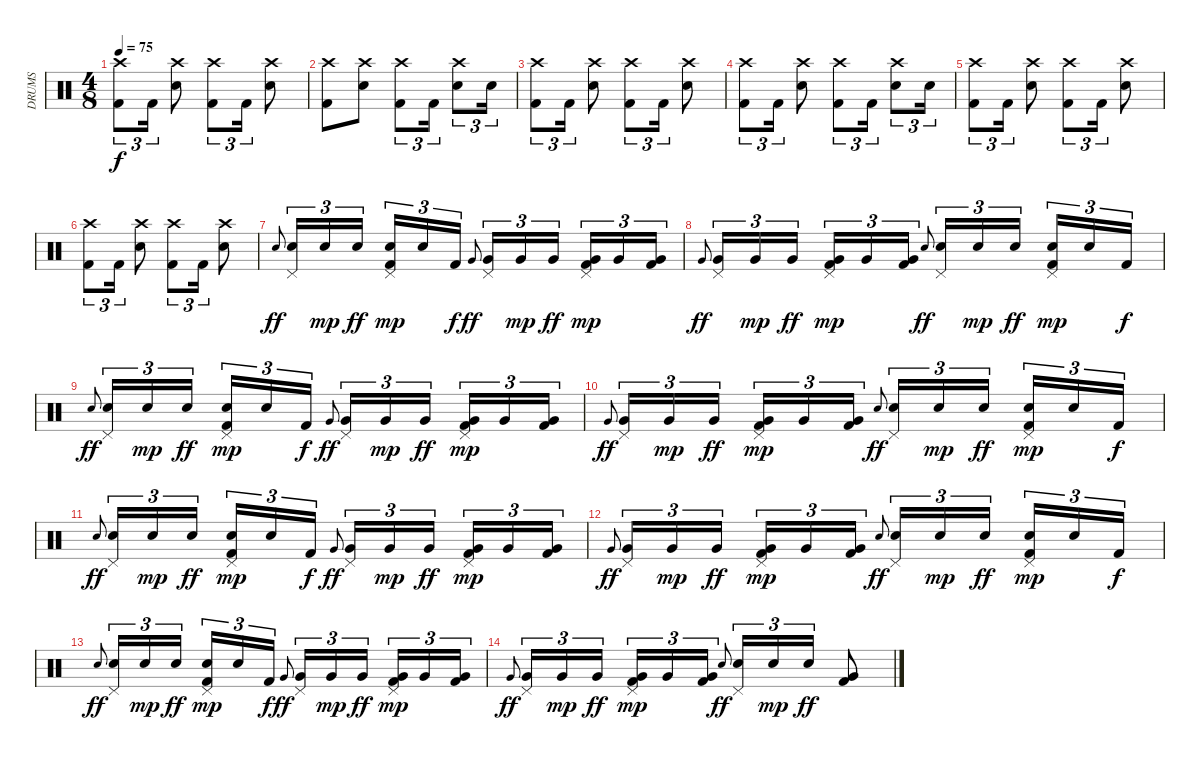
\track ("DRUMS" "DRUMS") {instrument percussion}
\staff {score}
\articulation defaults
\ts (4 8)
\tempo 75
\clef neutral
\ks c
("Crash high (hit)" "Kick (hit) 2").8{tu (3 2) dy f} "Kick (hit) 2".16{tu (3 2)} ("Crash high (hit)" "Snare (hit) 2").8 ("Crash high (hit)" "Kick (hit) 2").8{tu (3 2)} "Kick (hit) 2".16{tu (3 2)} ("Crash high (hit)" "Snare (hit) 2").8 |
("Crash high (hit)" "Kick (hit) 2").8 ("Crash high (hit)" "Snare (hit) 2").8 ("Crash high (hit)" "Kick (hit) 2").8{tu (3 2)} "Kick (hit) 2".16{tu (3 2)} ("Crash high (hit)" "Snare (hit) 2").8{tu (3 2)} "Snare (hit) 2".16{tu (3 2)} |
("Crash high (hit)" "Kick (hit) 2").8{tu (3 2)} "Kick (hit) 2".16{tu (3 2)} ("Crash high (hit)" "Snare (hit) 2").8 ("Crash high (hit)" "Kick (hit) 2").8{tu (3 2)} "Kick (hit) 2".16{tu (3 2)} ("Crash high (hit)" "Snare (hit) 2").8 |
("Crash high (hit)" "Kick (hit) 2").8{tu (3 2)} "Kick (hit) 2".16{tu (3 2)} ("Crash high (hit)" "Snare (hit) 2").8 ("Crash high (hit)" "Kick (hit) 2").8{tu (3 2)} "Kick (hit) 2".16{tu (3 2)} ("Crash high (hit)" "Snare (hit) 2").8{tu (3 2)} "Snare (hit) 2".16{tu (3 2)} |
("Crash high (hit)" "Kick (hit) 2").8{tu (3 2)} "Kick (hit) 2".16{tu (3 2)} ("Crash high (hit)" "Snare (hit) 2").8 ("Crash high (hit)" "Kick (hit) 2").8{tu (3 2)} "Kick (hit) 2".16{tu (3 2)} ("Crash high (hit)" "Snare (hit) 2").8 |
("Crash high (hit)" "Kick (hit) 2").8{tu (3 2)} "Kick (hit) 2".16{tu (3 2)} ("Crash high (hit)" "Snare (hit) 2").8 ("Crash high (hit)" "Kick (hit) 2").8{tu (3 2)} "Kick (hit) 2".16{tu (3 2)} ("Crash high (hit)" "Snare (hit) 2").8 |
"Electric Snare (hit)".8{gr onbeat dy ff} ("Pedal Hi-Hat (hit)" "Snare (hit) 2").16{tu (3 2)} "Snare (hit) 2".16{tu (3 2) dy mp} "Electric Snare (hit)".16{tu (3 2) dy ff} ("Pedal Hi-Hat (hit)" "Snare (hit) 2" "Kick (hit) 2").16{tu (3 2) dy mp} "Electric Snare (hit)".16{tu (3 2)} "Kick (hit) 2".16{tu (3 2) dy f} "Very Low Tom (hit)".8{gr onbeat dy ff} ("Pedal Hi-Hat (hit)" "Very Low Tom (hit)").16{tu (3 2)} "Very Low Tom (hit)".16{tu (3 2) dy mp} "Very Low Tom (hit)".16{tu (3 2) dy ff} ("Pedal Hi-Hat (hit)" "Very Low Tom (hit)" "Kick (hit) 2").16{tu (3 2) dy mp} "Very Low Tom (hit)".16{tu (3 2)} ("Very Low Tom (hit)" "Kick (hit) 2").16{tu (3 2)} |
"Very Low Tom (hit)".8{gr onbeat dy ff} ("Pedal Hi-Hat (hit)" "Very Low Tom (hit)").16{tu (3 2)} "Very Low Tom (hit)".16{tu (3 2) dy mp} "Very Low Tom (hit)".16{tu (3 2) dy ff} ("Pedal Hi-Hat (hit)" "Very Low Tom (hit)" "Kick (hit) 2").16{tu (3 2) dy mp} "Very Low Tom (hit)".16{tu (3 2)} ("Very Low Tom (hit)" "Kick (hit) 2").16{tu (3 2)} "Electric Snare (hit)".8{gr onbeat dy ff} ("Pedal Hi-Hat (hit)" "Snare (hit) 2").16{tu (3 2)} "Snare (hit) 2".16{tu (3 2) dy mp} "Electric Snare (hit)".16{tu (3 2) dy ff} ("Pedal Hi-Hat (hit)" "Snare (hit) 2" "Kick (hit) 2").16{tu (3 2) dy mp} "Electric Snare (hit)".16{tu (3 2)} "Kick (hit) 2".16{tu (3 2) dy f} |
"Electric Snare (hit)".8{gr onbeat dy ff} ("Pedal Hi-Hat (hit)" "Snare (hit) 2").16{tu (3 2)} "Snare (hit) 2".16{tu (3 2) dy mp} "Electric Snare (hit)".16{tu (3 2) dy ff} ("Pedal Hi-Hat (hit)" "Snare (hit) 2" "Kick (hit) 2").16{tu (3 2) dy mp} "Electric Snare (hit)".16{tu (3 2)} "Kick (hit) 2".16{tu (3 2) dy f} "Very Low Tom (hit)".8{gr onbeat dy ff} ("Pedal Hi-Hat (hit)" "Very Low Tom (hit)").16{tu (3 2)} "Very Low Tom (hit)".16{tu (3 2) dy mp} "Very Low Tom (hit)".16{tu (3 2) dy ff} ("Pedal Hi-Hat (hit)" "Very Low Tom (hit)" "Kick (hit) 2").16{tu (3 2) dy mp} "Very Low Tom (hit)".16{tu (3 2)} ("Very Low Tom (hit)" "Kick (hit) 2").16{tu (3 2)} |
"Very Low Tom (hit)".8{gr onbeat dy ff} ("Pedal Hi-Hat (hit)" "Very Low Tom (hit)").16{tu (3 2)} "Very Low Tom (hit)".16{tu (3 2) dy mp} "Very Low Tom (hit)".16{tu (3 2) dy ff} ("Pedal Hi-Hat (hit)" "Very Low Tom (hit)" "Kick (hit) 2").16{tu (3 2) dy mp} "Very Low Tom (hit)".16{tu (3 2)} ("Very Low Tom (hit)" "Kick (hit) 2").16{tu (3 2)} "Electric Snare (hit)".8{gr onbeat dy ff} ("Pedal Hi-Hat (hit)" "Snare (hit) 2").16{tu (3 2)} "Snare (hit) 2".16{tu (3 2) dy mp} "Electric Snare (hit)".16{tu (3 2) dy ff} ("Pedal Hi-Hat (hit)" "Snare (hit) 2" "Kick (hit) 2").16{tu (3 2) dy mp} "Electric Snare (hit)".16{tu (3 2)} "Kick (hit) 2".16{tu (3 2) dy f} |
"Electric Snare (hit)".8{gr onbeat dy ff} ("Pedal Hi-Hat (hit)" "Snare (hit) 2").16{tu (3 2)} "Snare (hit) 2".16{tu (3 2) dy mp} "Electric Snare (hit)".16{tu (3 2) dy ff} ("Pedal Hi-Hat (hit)" "Snare (hit) 2" "Kick (hit) 2").16{tu (3 2) dy mp} "Electric Snare (hit)".16{tu (3 2)} "Kick (hit) 2".16{tu (3 2) dy f} "Very Low Tom (hit)".8{gr onbeat dy ff} ("Pedal Hi-Hat (hit)" "Very Low Tom (hit)").16{tu (3 2)} "Very Low Tom (hit)".16{tu (3 2) dy mp} "Very Low Tom (hit)".16{tu (3 2) dy ff} ("Pedal Hi-Hat (hit)" "Very Low Tom (hit)" "Kick (hit) 2").16{tu (3 2) dy mp} "Very Low Tom (hit)".16{tu (3 2)} ("Very Low Tom (hit)" "Kick (hit) 2").16{tu (3 2)} |
"Very Low Tom (hit)".8{gr onbeat dy ff} ("Pedal Hi-Hat (hit)" "Very Low Tom (hit)").16{tu (3 2)} "Very Low Tom (hit)".16{tu (3 2) dy mp} "Very Low Tom (hit)".16{tu (3 2) dy ff} ("Pedal Hi-Hat (hit)" "Very Low Tom (hit)" "Kick (hit) 2").16{tu (3 2) dy mp} "Very Low Tom (hit)".16{tu (3 2)} ("Very Low Tom (hit)" "Kick (hit) 2").16{tu (3 2)} "Electric Snare (hit)".8{gr onbeat dy ff} ("Pedal Hi-Hat (hit)" "Snare (hit) 2").16{tu (3 2)} "Snare (hit) 2".16{tu (3 2) dy mp} "Electric Snare (hit)".16{tu (3 2) dy ff} ("Pedal Hi-Hat (hit)" "Snare (hit) 2" "Kick (hit) 2").16{tu (3 2) dy mp} "Electric Snare (hit)".16{tu (3 2)} "Kick (hit) 2".16{tu (3 2) dy f} |
"Electric Snare (hit)".8{gr onbeat dy ff} ("Pedal Hi-Hat (hit)" "Snare (hit) 2").16{tu (3 2)} "Snare (hit) 2".16{tu (3 2) dy mp} "Electric Snare (hit)".16{tu (3 2) dy ff} ("Pedal Hi-Hat (hit)" "Snare (hit) 2" "Kick (hit) 2").16{tu (3 2) dy mp} "Electric Snare (hit)".16{tu (3 2)} "Kick (hit) 2".16{tu (3 2) dy f} "Very Low Tom (hit)".8{gr onbeat dy ff} ("Pedal Hi-Hat (hit)" "Very Low Tom (hit)").16{tu (3 2)} "Very Low Tom (hit)".16{tu (3 2) dy mp} "Very Low Tom (hit)".16{tu (3 2) dy ff} ("Pedal Hi-Hat (hit)" "Very Low Tom (hit)" "Kick (hit) 2").16{tu (3 2) dy mp} "Very Low Tom (hit)".16{tu (3 2)} ("Very Low Tom (hit)" "Kick (hit) 2").16{tu (3 2)} |
"Very Low Tom (hit)".8{gr onbeat dy ff} ("Pedal Hi-Hat (hit)" "Very Low Tom (hit)").16{tu (3 2)} "Very Low Tom (hit)".16{tu (3 2) dy mp} "Very Low Tom (hit)".16{tu (3 2) dy ff} ("Pedal Hi-Hat (hit)" "Very Low Tom (hit)" "Kick (hit) 2").16{tu (3 2) dy mp} "Very Low Tom (hit)".16{tu (3 2)} ("Very Low Tom (hit)" "Kick (hit) 2").16{tu (3 2)} "Electric Snare (hit)".8{gr onbeat dy ff} ("Pedal Hi-Hat (hit)" "Snare (hit) 2").16{tu (3 2)} "Snare (hit) 2".16{tu (3 2) dy mp} "Electric Snare (hit)".16{tu (3 2) dy ff} ("Very Low Tom (hit)" "Kick (hit) 2").8
